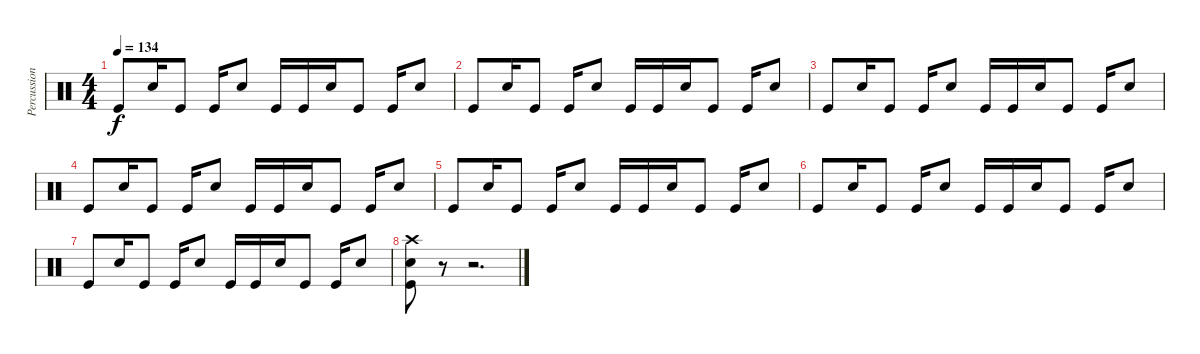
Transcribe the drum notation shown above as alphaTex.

\track ("Percussions" "Percussion") {instrument percussion}
\staff {score}
\articulation defaults
\ts (4 4)
\tempo 134
\clef neutral
\ks c "Kick (hit)".8{dy f} "Electric Snare (hit)".16 "Kick (hit)".8 "Kick (hit)".16 "Electric Snare (hit)".8 "Kick (hit)".16 "Kick (hit)".16 "Electric Snare (hit)".16 "Kick (hit)".8 "Kick (hit)".16 "Electric Snare (hit)".8
|
"Kick (hit)".8 "Electric Snare (hit)".16 "Kick (hit)".8 "Kick (hit)".16 "Electric Snare (hit)".8 "Kick (hit)".16 "Kick (hit)".16 "Electric Snare (hit)".16 "Kick (hit)".8 "Kick (hit)".16 "Electric Snare (hit)".8 |
"Kick (hit)".8 "Electric Snare (hit)".16 "Kick (hit)".8 "Kick (hit)".16 "Electric Snare (hit)".8 "Kick (hit)".16 "Kick (hit)".16 "Electric Snare (hit)".16 "Kick (hit)".8 "Kick (hit)".16 "Electric Snare (hit)".8 |
"Kick (hit)".8 "Electric Snare (hit)".16 "Kick (hit)".8 "Kick (hit)".16 "Electric Snare (hit)".8 "Kick (hit)".16 "Kick (hit)".16 "Electric Snare (hit)".16 "Kick (hit)".8 "Kick (hit)".16 "Electric Snare (hit)".8 |
"Kick (hit)".8 "Electric Snare (hit)".16 "Kick (hit)".8 "Kick (hit)".16 "Electric Snare (hit)".8 "Kick (hit)".16 "Kick (hit)".16 "Electric Snare (hit)".16 "Kick (hit)".8 "Kick (hit)".16 "Electric Snare (hit)".8 |
"Kick (hit)".8 "Electric Snare (hit)".16 "Kick (hit)".8 "Kick (hit)".16 "Electric Snare (hit)".8 "Kick (hit)".16 "Kick (hit)".16 "Electric Snare (hit)".16 "Kick (hit)".8 "Kick (hit)".16 "Electric Snare (hit)".8 |
"Kick (hit)".8 "Electric Snare (hit)".16 "Kick (hit)".8 "Kick (hit)".16 "Electric Snare (hit)".8 "Kick (hit)".16 "Kick (hit)".16 "Electric Snare (hit)".16 "Kick (hit)".8 "Kick (hit)".16 "Electric Snare (hit)".8 |
("Kick (hit)" "Electric Snare (hit)" "Crash high (hit)").8 r.8 r.2{d}
